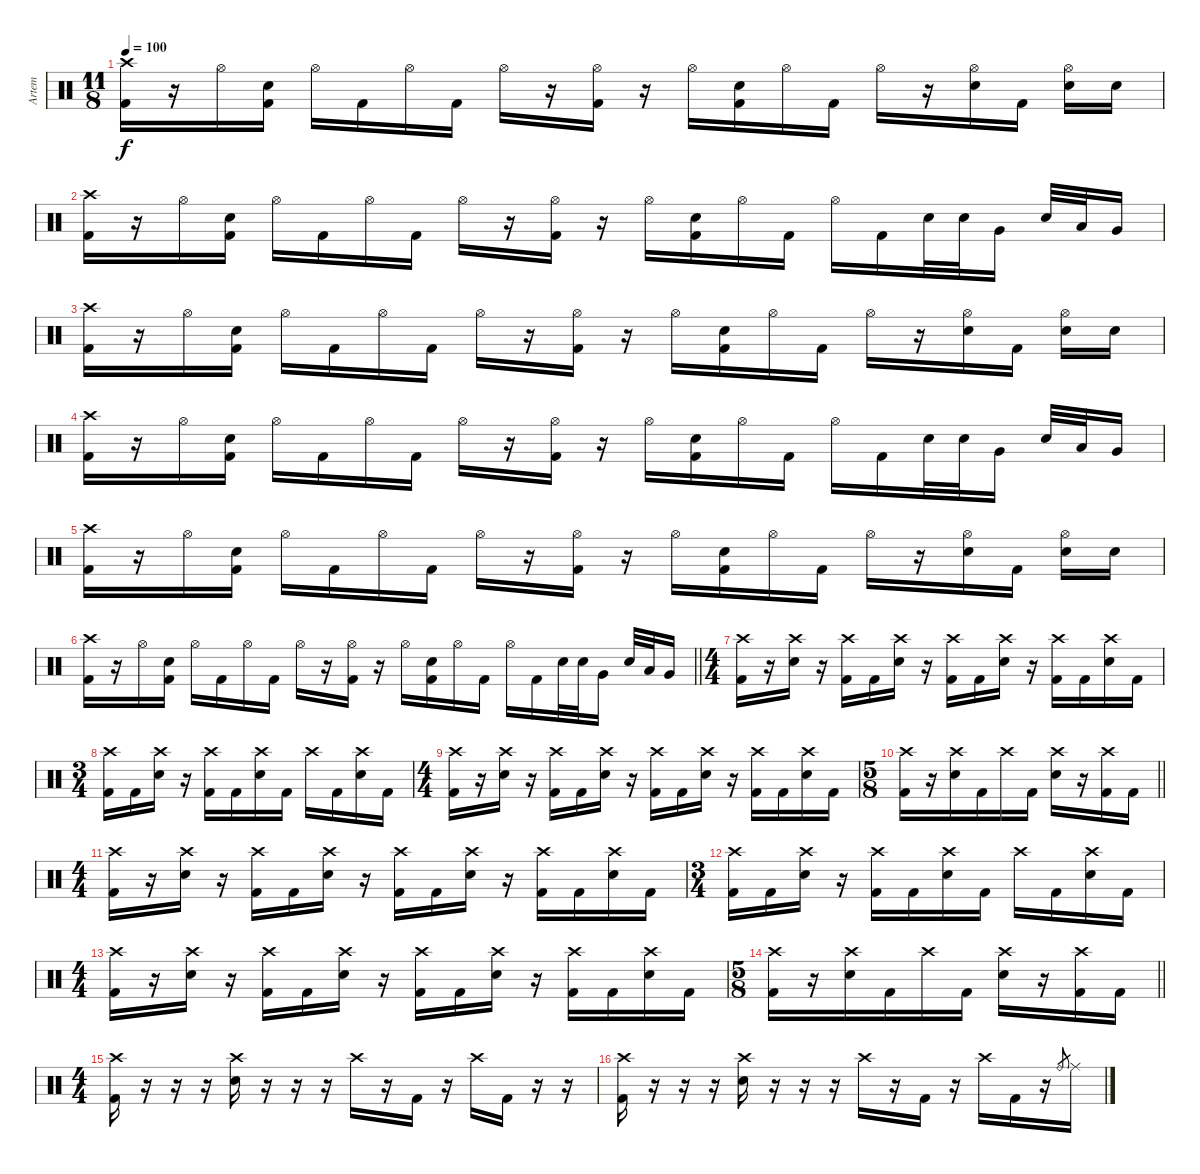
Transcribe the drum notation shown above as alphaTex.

\track ("Artem" "Artem") {instrument percussion}
\staff {score}
\articulation defaults
\ts (11 8)
\tempo 100
\clef neutral
\ks c
("Crash high (hit)" "Kick (hit) 2").16{dy f} r.16 "Hi-Hat (open)".16 ("Kick (hit) 2" "Snare (hit) 2").16 "Hi-Hat (open)".16 "Kick (hit) 2".16 "Hi-Hat (open)".16 "Kick (hit) 2".16 "Hi-Hat (open)".16 r.16 ("Hi-Hat (open)" "Kick (hit) 2").16 r.16 "Hi-Hat (open)".16 ("Kick (hit) 2" "Snare (hit) 2").16 "Hi-Hat (open)".16 "Kick (hit) 2".16 "Hi-Hat (open)".16 r.16 ("Hi-Hat (open)" "Snare (hit) 2").16 "Kick (hit) 2".16 ("Hi-Hat (open)" "Snare (hit) 2").16 "Snare (hit) 2".16 |
("Crash high (hit)" "Kick (hit) 2").16 r.16 "Hi-Hat (open)".16 ("Kick (hit) 2" "Snare (hit) 2").16 "Hi-Hat (open)".16 "Kick (hit) 2".16 "Hi-Hat (open)".16 "Kick (hit) 2".16 "Hi-Hat (open)".16 r.16 ("Hi-Hat (open)" "Kick (hit) 2").16 r.16 "Hi-Hat (open)".16 ("Kick (hit) 2" "Snare (hit) 2").16 "Hi-Hat (open)".16 "Kick (hit) 2".16 "Hi-Hat (open)".16 "Kick (hit) 2".16 "Snare (hit) 2".32 "Snare (hit) 2".32 "Very Low Tom (hit)".16 "Snare (hit) 2".32 "Low Floor Tom (hit)".32 "Very Low Tom (hit)".16 |
("Crash high (hit)" "Kick (hit) 2").16 r.16 "Hi-Hat (open)".16 ("Kick (hit) 2" "Snare (hit) 2").16 "Hi-Hat (open)".16 "Kick (hit) 2".16 "Hi-Hat (open)".16 "Kick (hit) 2".16 "Hi-Hat (open)".16 r.16 ("Hi-Hat (open)" "Kick (hit) 2").16 r.16 "Hi-Hat (open)".16 ("Kick (hit) 2" "Snare (hit) 2").16 "Hi-Hat (open)".16 "Kick (hit) 2".16 "Hi-Hat (open)".16 r.16 ("Hi-Hat (open)" "Snare (hit) 2").16 "Kick (hit) 2".16 ("Hi-Hat (open)" "Snare (hit) 2").16 "Snare (hit) 2".16 |
("Crash high (hit)" "Kick (hit) 2").16 r.16 "Hi-Hat (open)".16 ("Kick (hit) 2" "Snare (hit) 2").16 "Hi-Hat (open)".16 "Kick (hit) 2".16 "Hi-Hat (open)".16 "Kick (hit) 2".16 "Hi-Hat (open)".16 r.16 ("Hi-Hat (open)" "Kick (hit) 2").16 r.16 "Hi-Hat (open)".16 ("Kick (hit) 2" "Snare (hit) 2").16 "Hi-Hat (open)".16 "Kick (hit) 2".16 "Hi-Hat (open)".16 "Kick (hit) 2".16 "Snare (hit) 2".32 "Snare (hit) 2".32 "Very Low Tom (hit)".16 "Snare (hit) 2".32 "Low Floor Tom (hit)".32 "Very Low Tom (hit)".16 |
("Crash high (hit)" "Kick (hit) 2").16 r.16 "Hi-Hat (open)".16 ("Kick (hit) 2" "Snare (hit) 2").16 "Hi-Hat (open)".16 "Kick (hit) 2".16 "Hi-Hat (open)".16 "Kick (hit) 2".16 "Hi-Hat (open)".16 r.16 ("Hi-Hat (open)" "Kick (hit) 2").16 r.16 "Hi-Hat (open)".16 ("Kick (hit) 2" "Snare (hit) 2").16 "Hi-Hat (open)".16 "Kick (hit) 2".16 "Hi-Hat (open)".16 r.16 ("Hi-Hat (open)" "Snare (hit) 2").16 "Kick (hit) 2".16 ("Hi-Hat (open)" "Snare (hit) 2").16 "Snare (hit) 2".16 |
\barLineRight lightlight
("Crash high (hit)" "Kick (hit) 2").16 r.16 "Hi-Hat (open)".16 ("Kick (hit) 2" "Snare (hit) 2").16 "Hi-Hat (open)".16 "Kick (hit) 2".16 "Hi-Hat (open)".16 "Kick (hit) 2".16 "Hi-Hat (open)".16 r.16 ("Hi-Hat (open)" "Kick (hit) 2").16 r.16 "Hi-Hat (open)".16 ("Kick (hit) 2" "Snare (hit) 2").16 "Hi-Hat (open)".16 "Kick (hit) 2".16 "Hi-Hat (open)".16 "Kick (hit) 2".16 "Snare (hit) 2".32 "Snare (hit) 2".32 "Very Low Tom (hit)".16 "Snare (hit) 2".32 "Low Floor Tom (hit)".32 "Very Low Tom (hit)".16 |
\ts (4 4)
\section ("" "")
("Crash high (hit)" "Kick (hit) 2").16 r.16 ("Crash high (hit)" "Electric Snare (hit)").16 r.16 ("Crash high (hit)" "Kick (hit) 2").16 "Kick (hit) 2".16 ("Crash high (hit)" "Electric Snare (hit)").16 r.16 ("Crash high (hit)" "Kick (hit) 2").16 "Kick (hit) 2".16 ("Crash high (hit)" "Electric Snare (hit)").16 r.16 ("Crash high (hit)" "Kick (hit) 2").16 "Kick (hit) 2".16 ("Crash high (hit)" "Electric Snare (hit)").16 "Kick (hit) 2".16 |
\ts (3 4)
("Crash high (hit)" "Kick (hit) 2").16 "Kick (hit) 2".16 ("Crash high (hit)" "Electric Snare (hit)").16 r.16 ("Crash high (hit)" "Kick (hit) 2").16 "Kick (hit) 2".16 ("Crash high (hit)" "Electric Snare (hit)").16 "Kick (hit) 2".16 "Crash high (hit)".16 "Kick (hit) 2".16 ("Crash high (hit)" "Electric Snare (hit)").16 "Kick (hit) 2".16 |
\ts (4 4)
("Crash high (hit)" "Kick (hit) 2").16 r.16 ("Crash high (hit)" "Electric Snare (hit)").16 r.16 ("Crash high (hit)" "Kick (hit) 2").16 "Kick (hit) 2".16 ("Crash high (hit)" "Electric Snare (hit)").16 r.16 ("Crash high (hit)" "Kick (hit) 2").16 "Kick (hit) 2".16 ("Crash high (hit)" "Electric Snare (hit)").16 r.16 ("Crash high (hit)" "Kick (hit) 2").16 "Kick (hit) 2".16 ("Crash high (hit)" "Electric Snare (hit)").16 "Kick (hit) 2".16 |
\ts (5 8)
\barLineRight lightlight
("Crash high (hit)" "Kick (hit) 2").16 r.16 ("Crash high (hit)" "Snare (hit) 2").16 "Kick (hit) 2".16 "Crash high (hit)".16 "Kick (hit) 2".16 ("Crash high (hit)" "Snare (hit) 2").16 r.16 ("Crash high (hit)" "Kick (hit) 2").16 "Kick (hit) 2".16 |
\ts (4 4)
("Crash high (hit)" "Kick (hit) 2").16 r.16 ("Crash high (hit)" "Electric Snare (hit)").16 r.16 ("Crash high (hit)" "Kick (hit) 2").16 "Kick (hit) 2".16 ("Crash high (hit)" "Electric Snare (hit)").16 r.16 ("Crash high (hit)" "Kick (hit) 2").16 "Kick (hit) 2".16 ("Crash high (hit)" "Electric Snare (hit)").16 r.16 ("Crash high (hit)" "Kick (hit) 2").16 "Kick (hit) 2".16 ("Crash high (hit)" "Electric Snare (hit)").16 "Kick (hit) 2".16 |
\ts (3 4)
("Crash high (hit)" "Kick (hit) 2").16 "Kick (hit) 2".16 ("Crash high (hit)" "Electric Snare (hit)").16 r.16 ("Crash high (hit)" "Kick (hit) 2").16 "Kick (hit) 2".16 ("Crash high (hit)" "Electric Snare (hit)").16 "Kick (hit) 2".16 "Crash high (hit)".16 "Kick (hit) 2".16 ("Crash high (hit)" "Electric Snare (hit)").16 "Kick (hit) 2".16 |
\ts (4 4)
("Crash high (hit)" "Kick (hit) 2").16 r.16 ("Crash high (hit)" "Electric Snare (hit)").16 r.16 ("Crash high (hit)" "Kick (hit) 2").16 "Kick (hit) 2".16 ("Crash high (hit)" "Electric Snare (hit)").16 r.16 ("Crash high (hit)" "Kick (hit) 2").16 "Kick (hit) 2".16 ("Crash high (hit)" "Electric Snare (hit)").16 r.16 ("Crash high (hit)" "Kick (hit) 2").16 "Kick (hit) 2".16 ("Crash high (hit)" "Electric Snare (hit)").16 "Kick (hit) 2".16 |
\ts (5 8)
\barLineRight lightlight
("Crash high (hit)" "Kick (hit) 2").16 r.16 ("Crash high (hit)" "Snare (hit) 2").16 "Kick (hit) 2".16 "Crash high (hit)".16 "Kick (hit) 2".16 ("Crash high (hit)" "Snare (hit) 2").16 r.16 ("Crash high (hit)" "Kick (hit) 2").16 "Kick (hit) 2".16 |
\ts (4 4)
\section ("" "")
("Crash high (hit)" "Kick (hit) 2").16 r.16 r.16 r.16 ("Crash high (hit)" "Snare (hit) 2").16 r.16 r.16 r.16 "Crash high (hit)".16 r.16 "Kick (hit) 2".16 r.16 "Crash high (hit)".16 "Kick (hit) 2".16 r.16 r.16 |
("Crash high (hit)" "Kick (hit) 2").16 r.16 r.16 r.16 ("Crash high (hit)" "Snare (hit) 2").16 r.16 r.16 r.16 "Crash high (hit)".16 r.16 "Kick (hit) 2".16 r.16 "Crash high (hit)".16 "Kick (hit) 2".16 r.16 "Ride (bell)".8{gr} "Ride (middle)".16
